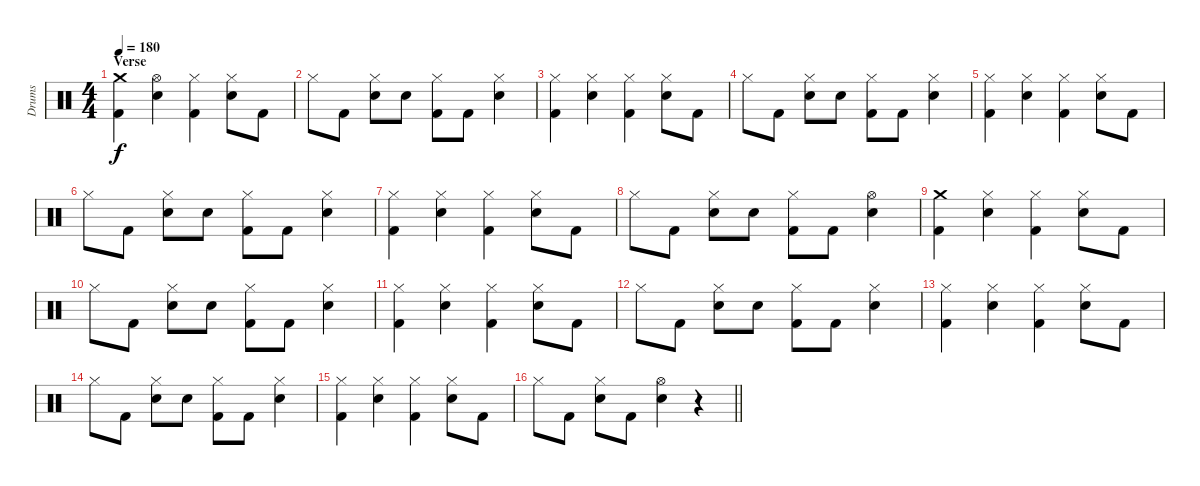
\track ("Drums" "Drums") {instrument percussion}
\staff {score}
\articulation defaults
\ts (4 4)
\section ("" "Verse")
\tempo 180
\clef neutral
\ks c
("Crash medium (hit)" "Kick (hit) 2").4{dy f} ("Hi-Hat (open)" "Snare (hit) 2").4 ("Hi-Hat (closed)" "Kick (hit) 2").4 ("Hi-Hat (closed)" "Snare (hit) 2").8 "Kick (hit) 2".8 |
"Hi-Hat (closed)".8 "Kick (hit) 2".8 ("Hi-Hat (closed)" "Snare (hit) 2").8 "Snare (hit) 2".8 ("Hi-Hat (closed)" "Kick (hit) 2").8 "Kick (hit) 2".8 ("Hi-Hat (closed)" "Snare (hit) 2").4 |
("Hi-Hat (closed)" "Kick (hit) 2").4 ("Hi-Hat (closed)" "Snare (hit) 2").4 ("Hi-Hat (closed)" "Kick (hit) 2").4 ("Hi-Hat (closed)" "Snare (hit) 2").8 "Kick (hit) 2".8 |
"Hi-Hat (closed)".8 "Kick (hit) 2".8 ("Hi-Hat (closed)" "Snare (hit) 2").8 "Snare (hit) 2".8 ("Hi-Hat (closed)" "Kick (hit) 2").8 "Kick (hit) 2".8 ("Hi-Hat (closed)" "Snare (hit) 2").4 |
("Hi-Hat (closed)" "Kick (hit) 2").4 ("Hi-Hat (closed)" "Snare (hit) 2").4 ("Hi-Hat (closed)" "Kick (hit) 2").4 ("Hi-Hat (closed)" "Snare (hit) 2").8 "Kick (hit) 2".8 |
"Hi-Hat (closed)".8 "Kick (hit) 2".8 ("Hi-Hat (closed)" "Snare (hit) 2").8 "Snare (hit) 2".8 ("Hi-Hat (closed)" "Kick (hit) 2").8 "Kick (hit) 2".8 ("Hi-Hat (closed)" "Snare (hit) 2").4 |
("Hi-Hat (closed)" "Kick (hit) 2").4 ("Hi-Hat (closed)" "Snare (hit) 2").4 ("Hi-Hat (closed)" "Kick (hit) 2").4 ("Hi-Hat (closed)" "Snare (hit) 2").8 "Kick (hit) 2".8 |
"Hi-Hat (closed)".8 "Kick (hit) 2".8 ("Hi-Hat (closed)" "Snare (hit) 2").8 "Snare (hit) 2".8 ("Hi-Hat (closed)" "Kick (hit) 2").8 "Kick (hit) 2".8 ("Hi-Hat (open)" "Snare (hit) 2").4 |
("Crash medium (hit)" "Kick (hit) 2").4 ("Hi-Hat (closed)" "Snare (hit) 2").4 ("Hi-Hat (closed)" "Kick (hit) 2").4 ("Hi-Hat (closed)" "Snare (hit) 2").8 "Kick (hit) 2".8 |
"Hi-Hat (closed)".8 "Kick (hit) 2".8 ("Hi-Hat (closed)" "Snare (hit) 2").8 "Snare (hit) 2".8 ("Hi-Hat (closed)" "Kick (hit) 2").8 "Kick (hit) 2".8 ("Hi-Hat (closed)" "Snare (hit) 2").4 |
("Hi-Hat (closed)" "Kick (hit) 2").4 ("Hi-Hat (closed)" "Snare (hit) 2").4 ("Hi-Hat (closed)" "Kick (hit) 2").4 ("Hi-Hat (closed)" "Snare (hit) 2").8 "Kick (hit) 2".8 |
"Hi-Hat (closed)".8 "Kick (hit) 2".8 ("Hi-Hat (closed)" "Snare (hit) 2").8 "Snare (hit) 2".8 ("Hi-Hat (closed)" "Kick (hit) 2").8 "Kick (hit) 2".8 ("Hi-Hat (closed)" "Snare (hit) 2").4 |
("Hi-Hat (closed)" "Kick (hit) 2").4 ("Hi-Hat (closed)" "Snare (hit) 2").4 ("Hi-Hat (closed)" "Kick (hit) 2").4 ("Hi-Hat (closed)" "Snare (hit) 2").8 "Kick (hit) 2".8 |
"Hi-Hat (closed)".8 "Kick (hit) 2".8 ("Hi-Hat (closed)" "Snare (hit) 2").8 "Snare (hit) 2".8 ("Hi-Hat (closed)" "Kick (hit) 2").8 "Kick (hit) 2".8 ("Hi-Hat (closed)" "Snare (hit) 2").4 |
("Hi-Hat (closed)" "Kick (hit) 2").4 ("Hi-Hat (closed)" "Snare (hit) 2").4 ("Hi-Hat (closed)" "Kick (hit) 2").4 ("Hi-Hat (closed)" "Snare (hit) 2").8 "Kick (hit) 2".8 |
\barLineRight lightlight "Hi-Hat (closed)".8 "Kick (hit) 2".8
("Hi-Hat (closed)" "Snare (hit) 2").8 "Kick (hit) 2".8 ("Hi-Hat (open)" "Snare (hit) 2").4 r.4
